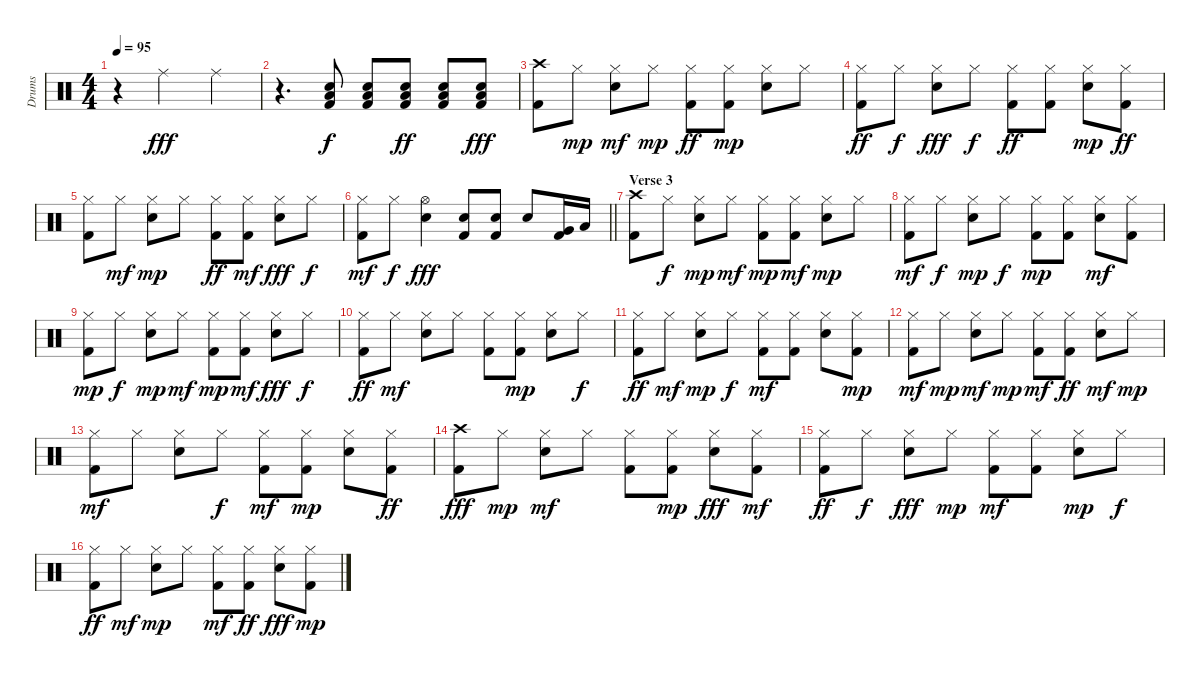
\track ("Drums" "Drums") {instrument percussion}
\staff {score}
\articulation defaults
\ts (4 4)
\tempo 95
\clef neutral
\ks c
r.4{dy fff} "Ride (middle)".2 "Ride (middle)".4 |
r.4{d} ("Kick (hit) 2" "Electric Snare (hit)" "Low Floor Tom (hit)").8{dy f} ("Kick (hit) 2" "Electric Snare (hit)" "Low Floor Tom (hit)").8 ("Kick (hit) 2" "Electric Snare (hit)" "Low Floor Tom (hit)").8{dy ff} ("Kick (hit) 2" "Electric Snare (hit)" "Low Floor Tom (hit)").8 ("Kick (hit) 2" "Electric Snare (hit)" "Low Floor Tom (hit)").8{dy fff} |
("Kick (hit) 2" "Crash high (hit)").8 "Hi-Hat (closed)".8{dy mp} ("Electric Snare (hit)" "Hi-Hat (closed)").8{dy mf} "Hi-Hat (closed)".8{dy mp} ("Kick (hit) 2" "Hi-Hat (closed)").8{dy ff} ("Kick (hit) 2" "Hi-Hat (closed)").8{dy mp} ("Electric Snare (hit)" "Hi-Hat (closed)").8 "Hi-Hat (closed)".8 |
("Kick (hit) 2" "Hi-Hat (closed)").8{dy ff} "Hi-Hat (closed)".8{dy f} ("Electric Snare (hit)" "Hi-Hat (closed)").8{dy fff} "Hi-Hat (closed)".8{dy f} ("Kick (hit) 2" "Hi-Hat (closed)").8{dy ff} ("Kick (hit) 2" "Hi-Hat (closed)").8 ("Electric Snare (hit)" "Hi-Hat (closed)").8{dy mp} ("Kick (hit) 2" "Hi-Hat (closed)").8{dy ff} |
("Kick (hit) 2" "Hi-Hat (closed)").8 "Hi-Hat (closed)".8{dy mf} ("Electric Snare (hit)" "Hi-Hat (closed)").8{dy mp} "Hi-Hat (closed)".8 ("Kick (hit) 2" "Hi-Hat (closed)").8{dy ff} ("Kick (hit) 2" "Hi-Hat (closed)").8{dy mf} ("Electric Snare (hit)" "Hi-Hat (closed)").8{dy fff} "Hi-Hat (closed)".8{dy f} |
\barLineRight lightlight
("Kick (hit) 2" "Hi-Hat (closed)").8{dy mf} "Hi-Hat (closed)".8{dy f} ("Electric Snare (hit)" "Hi-Hat (open)").4{dy fff} ("Kick (hit) 2" "Electric Snare (hit)").8 ("Kick (hit) 2" "Electric Snare (hit)").8 "Electric Snare (hit)".8 ("Kick (hit) 2" "Very Low Tom (hit)").16 "Low Floor Tom (hit)".16 |
\section ("" "Verse 3")
("Kick (hit) 2" "Crash high (hit)").8 "Hi-Hat (closed)".8{dy f} ("Electric Snare (hit)" "Hi-Hat (closed)").8{dy mp} "Hi-Hat (closed)".8{dy mf} ("Kick (hit) 2" "Hi-Hat (closed)").8{dy mp} ("Kick (hit) 2" "Hi-Hat (closed)").8{dy mf} ("Electric Snare (hit)" "Hi-Hat (closed)").8{dy mp} "Hi-Hat (closed)".8 |
("Kick (hit) 2" "Hi-Hat (closed)").8{dy mf} "Hi-Hat (closed)".8{dy f} ("Electric Snare (hit)" "Hi-Hat (closed)").8{dy mp} "Hi-Hat (closed)".8{dy f} ("Kick (hit) 2" "Hi-Hat (closed)").8{dy mp} ("Kick (hit) 2" "Hi-Hat (closed)").8 ("Electric Snare (hit)" "Hi-Hat (closed)").8{dy mf} ("Kick (hit) 2" "Hi-Hat (closed)").8 |
("Kick (hit) 2" "Hi-Hat (closed)").8{dy mp} "Hi-Hat (closed)".8{dy f} ("Electric Snare (hit)" "Hi-Hat (closed)").8{dy mp} "Hi-Hat (closed)".8{dy mf} ("Kick (hit) 2" "Hi-Hat (closed)").8{dy mp} ("Kick (hit) 2" "Hi-Hat (closed)").8{dy mf} ("Electric Snare (hit)" "Hi-Hat (closed)").8{dy fff} "Hi-Hat (closed)".8{dy f} |
("Kick (hit) 2" "Hi-Hat (closed)").8{dy ff} "Hi-Hat (closed)".8{dy mf} ("Electric Snare (hit)" "Hi-Hat (closed)").8 "Hi-Hat (closed)".8 ("Kick (hit) 2" "Hi-Hat (closed)").8 ("Kick (hit) 2" "Hi-Hat (closed)").8{dy mp} ("Electric Snare (hit)" "Hi-Hat (closed)").8 "Hi-Hat (closed)".8{dy f} |
("Kick (hit) 2" "Hi-Hat (closed)").8{dy ff} "Hi-Hat (closed)".8{dy mf} ("Electric Snare (hit)" "Hi-Hat (closed)").8{dy mp} "Hi-Hat (closed)".8{dy f} ("Kick (hit) 2" "Hi-Hat (closed)").8{dy mf} ("Kick (hit) 2" "Hi-Hat (closed)").8 ("Electric Snare (hit)" "Hi-Hat (closed)").8 ("Kick (hit) 2" "Hi-Hat (closed)").8{dy mp} |
("Kick (hit) 2" "Hi-Hat (closed)").8{dy mf} "Hi-Hat (closed)".8{dy mp} ("Electric Snare (hit)" "Hi-Hat (closed)").8{dy mf} "Hi-Hat (closed)".8{dy mp} ("Kick (hit) 2" "Hi-Hat (closed)").8{dy mf} ("Kick (hit) 2" "Hi-Hat (closed)").8{dy ff} ("Electric Snare (hit)" "Hi-Hat (closed)").8{dy mf} "Hi-Hat (closed)".8{dy mp} |
("Kick (hit) 2" "Hi-Hat (closed)").8{dy mf} "Hi-Hat (closed)".8 ("Electric Snare (hit)" "Hi-Hat (closed)").8 "Hi-Hat (closed)".8{dy f} ("Kick (hit) 2" "Hi-Hat (closed)").8{dy mf} ("Kick (hit) 2" "Hi-Hat (closed)").8{dy mp} ("Electric Snare (hit)" "Hi-Hat (closed)").8 ("Kick (hit) 2" "Hi-Hat (closed)").8{dy ff} |
("Kick (hit) 2" "Crash high (hit)").8{dy fff} "Hi-Hat (closed)".8{dy mp} ("Electric Snare (hit)" "Hi-Hat (closed)").8{dy mf} "Hi-Hat (closed)".8 ("Kick (hit) 2" "Hi-Hat (closed)").8 ("Kick (hit) 2" "Hi-Hat (closed)").8{dy mp} ("Electric Snare (hit)" "Hi-Hat (closed)").8{dy fff} ("Kick (hit) 2" "Hi-Hat (closed)").8{dy mf} |
("Kick (hit) 2" "Hi-Hat (closed)").8{dy ff} "Hi-Hat (closed)".8{dy f} ("Electric Snare (hit)" "Hi-Hat (closed)").8{dy fff} "Hi-Hat (closed)".8{dy mp} ("Kick (hit) 2" "Hi-Hat (closed)").8{dy mf} ("Kick (hit) 2" "Hi-Hat (closed)").8 ("Electric Snare (hit)" "Hi-Hat (closed)").8{dy mp} "Hi-Hat (closed)".8{dy f} |
("Kick (hit) 2" "Hi-Hat (closed)").8{dy ff} "Hi-Hat (closed)".8{dy mf} ("Electric Snare (hit)" "Hi-Hat (closed)").8{dy mp} "Hi-Hat (closed)".8 ("Kick (hit) 2" "Hi-Hat (closed)").8{dy mf} ("Kick (hit) 2" "Hi-Hat (closed)").8{dy ff} ("Electric Snare (hit)" "Hi-Hat (closed)").8{dy fff} ("Kick (hit) 2" "Hi-Hat (closed)").8{dy mp}
